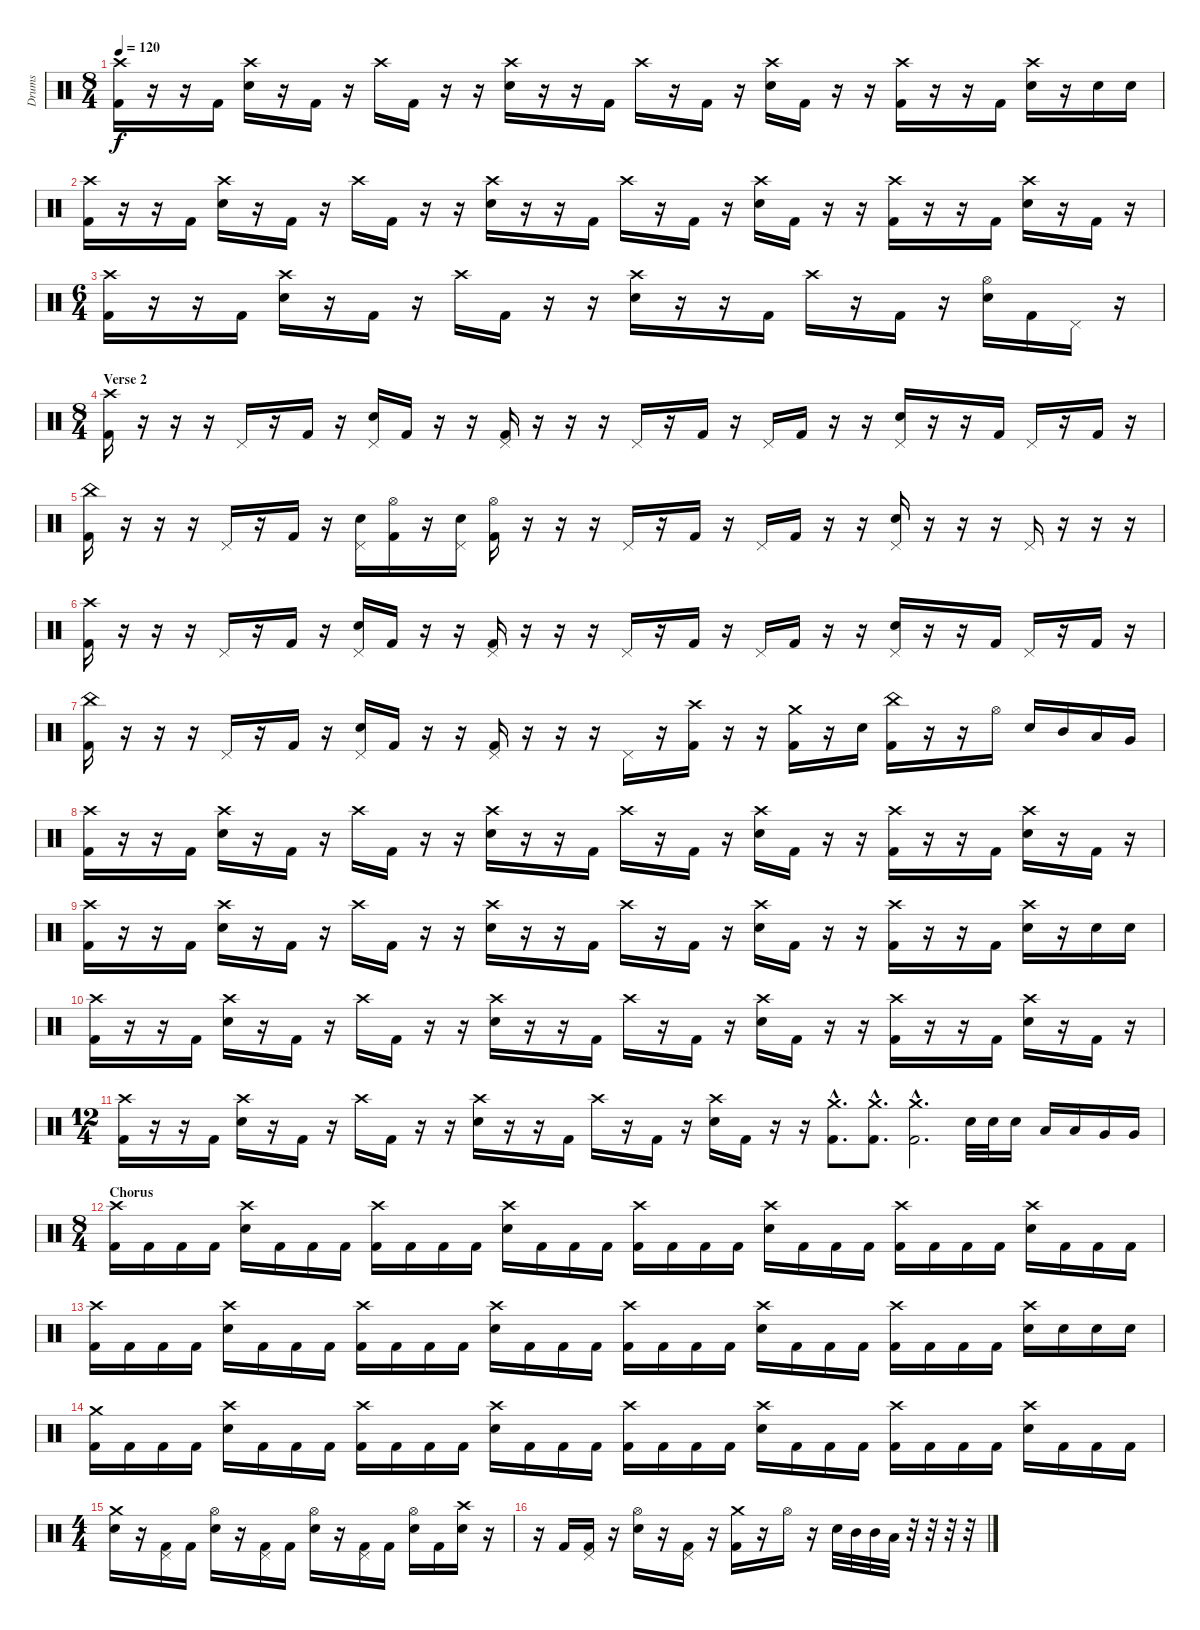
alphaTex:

\track ("Drums" "Drums") {instrument percussion}
\staff {score}
\articulation defaults
\ts (8 4)
\tempo 120
\clef neutral
\ks c
("Crash high (hit)" "Kick (hit) 2").16{dy f} r.16 r.16 "Kick (hit) 2".16 ("Crash high (hit)" "Electric Snare (hit)").16 r.16 "Kick (hit) 2".16 r.16 "Crash high (hit)".16 "Kick (hit) 2".16 r.16 r.16 ("Crash high (hit)" "Electric Snare (hit)").16 r.16 r.16 "Kick (hit) 2".16 "Crash high (hit)".16 r.16 "Kick (hit) 2".16 r.16 ("Crash high (hit)" "Electric Snare (hit)").16 "Kick (hit) 2".16 r.16 r.16 ("Crash high (hit)" "Kick (hit) 2").16 r.16 r.16 "Kick (hit) 2".16 ("Crash high (hit)" "Electric Snare (hit)").16 r.16 "Electric Snare (hit)".16 "Electric Snare (hit)".16 |
("Crash high (hit)" "Kick (hit) 2").16 r.16 r.16 "Kick (hit) 2".16 ("Crash high (hit)" "Electric Snare (hit)").16 r.16 "Kick (hit) 2".16 r.16 "Crash high (hit)".16 "Kick (hit) 2".16 r.16 r.16 ("Crash high (hit)" "Electric Snare (hit)").16 r.16 r.16 "Kick (hit) 2".16 "Crash high (hit)".16 r.16 "Kick (hit) 2".16 r.16 ("Crash high (hit)" "Electric Snare (hit)").16 "Kick (hit) 2".16 r.16 r.16 ("Crash high (hit)" "Kick (hit) 2").16 r.16 r.16 "Kick (hit) 2".16 ("Crash high (hit)" "Electric Snare (hit)").16 r.16 "Kick (hit) 2".16 r.16 |
\ts (6 4)
("Crash high (hit)" "Kick (hit) 2").16 r.16 r.16 "Kick (hit) 2".16 ("Crash high (hit)" "Electric Snare (hit)").16 r.16 "Kick (hit) 2".16 r.16 "Crash high (hit)".16 "Kick (hit) 2".16 r.16 r.16 ("Crash high (hit)" "Electric Snare (hit)").16 r.16 r.16 "Kick (hit) 2".16 "Crash high (hit)".16 r.16 "Kick (hit) 2".16 r.16 ("Hi-Hat (open)" "Electric Snare (hit)").16 "Kick (hit) 2".16 "Pedal Hi-Hat (hit)".16 r.16 |
\ts (8 4)
\section ("" "Verse 2")
("Crash high (hit)" "Kick (hit) 2").16 r.16 r.16 r.16 "Pedal Hi-Hat (hit)".16 r.16 "Kick (hit) 2".16 r.16 ("Pedal Hi-Hat (hit)" "Electric Snare (hit)").16 "Kick (hit) 2".16 r.16 r.16 ("Pedal Hi-Hat (hit)" "Kick (hit) 2").16 r.16 r.16 r.16 "Pedal Hi-Hat (hit)".16 r.16 "Kick (hit) 2".16 r.16 "Pedal Hi-Hat (hit)".16 "Kick (hit) 2".16 r.16 r.16 ("Pedal Hi-Hat (hit)" "Electric Snare (hit)").16 r.16 r.16 "Kick (hit) 2".16 "Pedal Hi-Hat (hit)".16 r.16 "Kick (hit) 2".16 r.16 |
("China (hit)" "Kick (hit) 2").16 r.16 r.16 r.16 "Pedal Hi-Hat (hit)".16 r.16 "Kick (hit) 2".16 r.16 ("Pedal Hi-Hat (hit)" "Electric Snare (hit)").16 ("Hi-Hat (open)" "Kick (hit) 2").16 r.16 ("Pedal Hi-Hat (hit)" "Electric Snare (hit)").16 ("Hi-Hat (open)" "Kick (hit) 2").16 r.16 r.16 r.16 "Pedal Hi-Hat (hit)".16 r.16 "Kick (hit) 2".16 r.16 "Pedal Hi-Hat (hit)".16 "Kick (hit) 2".16 r.16 r.16 ("Pedal Hi-Hat (hit)" "Electric Snare (hit)").16 r.16 r.16 r.16 "Pedal Hi-Hat (hit)".16 r.16 r.16 r.16 |
("Crash high (hit)" "Kick (hit) 2").16 r.16 r.16 r.16 "Pedal Hi-Hat (hit)".16 r.16 "Kick (hit) 2".16 r.16 ("Pedal Hi-Hat (hit)" "Electric Snare (hit)").16 "Kick (hit) 2".16 r.16 r.16 ("Pedal Hi-Hat (hit)" "Kick (hit) 2").16 r.16 r.16 r.16 "Pedal Hi-Hat (hit)".16 r.16 "Kick (hit) 2".16 r.16 "Pedal Hi-Hat (hit)".16 "Kick (hit) 2".16 r.16 r.16 ("Pedal Hi-Hat (hit)" "Electric Snare (hit)").16 r.16 r.16 "Kick (hit) 2".16 "Pedal Hi-Hat (hit)".16 r.16 "Kick (hit) 2".16 r.16 |
("China (hit)" "Kick (hit) 2").16 r.16 r.16 r.16 "Pedal Hi-Hat (hit)".16 r.16 "Kick (hit) 2".16 r.16 ("Pedal Hi-Hat (hit)" "Electric Snare (hit)").16 "Kick (hit) 2".16 r.16 r.16 ("Pedal Hi-Hat (hit)" "Kick (hit) 2").16 r.16 r.16 r.16 "Pedal Hi-Hat (hit)".16 r.16 ("Crash high (hit)" "Kick (hit) 2").16 r.16 r.16 ("Crash medium (hit)" "Kick (hit) 2").16 r.16 "Electric Snare (hit)".16 ("China (hit)" "Kick (hit) 2").16 r.16 r.16 "Hi-Hat (open)".16 "Electric Snare (hit)".16 "Mid Tom (hit)".16 "Low Tom (hit)".16 "Very Low Tom (hit)".16 |
("Crash high (hit)" "Kick (hit) 2").16 r.16 r.16 "Kick (hit) 2".16 ("Crash high (hit)" "Electric Snare (hit)").16 r.16 "Kick (hit) 2".16 r.16 "Crash high (hit)".16 "Kick (hit) 2".16 r.16 r.16 ("Crash high (hit)" "Electric Snare (hit)").16 r.16 r.16 "Kick (hit) 2".16 "Crash high (hit)".16 r.16 "Kick (hit) 2".16 r.16 ("Crash high (hit)" "Electric Snare (hit)").16 "Kick (hit) 2".16 r.16 r.16 ("Crash high (hit)" "Kick (hit) 2").16 r.16 r.16 "Kick (hit) 2".16 ("Crash high (hit)" "Electric Snare (hit)").16 r.16 "Kick (hit) 2".16 r.16 |
("Crash high (hit)" "Kick (hit) 2").16 r.16 r.16 "Kick (hit) 2".16 ("Crash high (hit)" "Electric Snare (hit)").16 r.16 "Kick (hit) 2".16 r.16 "Crash high (hit)".16 "Kick (hit) 2".16 r.16 r.16 ("Crash high (hit)" "Electric Snare (hit)").16 r.16 r.16 "Kick (hit) 2".16 "Crash high (hit)".16 r.16 "Kick (hit) 2".16 r.16 ("Crash high (hit)" "Electric Snare (hit)").16 "Kick (hit) 2".16 r.16 r.16 ("Crash high (hit)" "Kick (hit) 2").16 r.16 r.16 "Kick (hit) 2".16 ("Crash high (hit)" "Electric Snare (hit)").16 r.16 "Electric Snare (hit)".16 "Electric Snare (hit)".16 |
("Crash high (hit)" "Kick (hit) 2").16 r.16 r.16 "Kick (hit) 2".16 ("Crash high (hit)" "Electric Snare (hit)").16 r.16 "Kick (hit) 2".16 r.16 "Crash high (hit)".16 "Kick (hit) 2".16 r.16 r.16 ("Crash high (hit)" "Electric Snare (hit)").16 r.16 r.16 "Kick (hit) 2".16 "Crash high (hit)".16 r.16 "Kick (hit) 2".16 r.16 ("Crash high (hit)" "Electric Snare (hit)").16 "Kick (hit) 2".16 r.16 r.16 ("Crash high (hit)" "Kick (hit) 2").16 r.16 r.16 "Kick (hit) 2".16 ("Crash high (hit)" "Electric Snare (hit)").16 r.16 "Kick (hit) 2".16 r.16 |
\ts (12 4)
("Crash high (hit)" "Kick (hit) 2").16 r.16 r.16 "Kick (hit) 2".16 ("Crash high (hit)" "Electric Snare (hit)").16 r.16 "Kick (hit) 2".16 r.16 "Crash high (hit)".16 "Kick (hit) 2".16 r.16 r.16 ("Crash high (hit)" "Electric Snare (hit)").16 r.16 r.16 "Kick (hit) 2".16 "Crash high (hit)".16 r.16 "Kick (hit) 2".16 r.16 ("Crash high (hit)" "Electric Snare (hit)").16 "Kick (hit) 2".16 r.16 r.16 ("Crash medium (hit)"{hac} "Kick (hit) 2"{hac}).8{d} ("Crash medium (hit)"{hac} "Kick (hit) 2"{hac}).8{d} ("Crash medium (hit)"{hac} "Kick (hit) 2"{hac}).2{d} "Electric Snare (hit)".32 "Electric Snare (hit)".32 "Electric Snare (hit)".16 "Low Tom (hit)".16 "Low Tom (hit)".16 "Very Low Tom (hit)".16 "Very Low Tom (hit)".16 |
\ts (8 4)
\section ("" "Chorus")
("Crash high (hit)" "Kick (hit) 2").16 "Kick (hit) 2".16 "Kick (hit) 2".16 "Kick (hit) 2".16 ("Crash high (hit)" "Electric Snare (hit)").16 "Kick (hit) 2".16 "Kick (hit) 2".16 "Kick (hit) 2".16 ("Crash high (hit)" "Kick (hit) 2").16 "Kick (hit) 2".16 "Kick (hit) 2".16 "Kick (hit) 2".16 ("Crash high (hit)" "Electric Snare (hit)").16 "Kick (hit) 2".16 "Kick (hit) 2".16 "Kick (hit) 2".16 ("Crash high (hit)" "Kick (hit) 2").16 "Kick (hit) 2".16 "Kick (hit) 2".16 "Kick (hit) 2".16 ("Crash high (hit)" "Electric Snare (hit)").16 "Kick (hit) 2".16 "Kick (hit) 2".16 "Kick (hit) 2".16 ("Crash high (hit)" "Kick (hit) 2").16 "Kick (hit) 2".16 "Kick (hit) 2".16 "Kick (hit) 2".16 ("Crash high (hit)" "Electric Snare (hit)").16 "Kick (hit) 2".16 "Kick (hit) 2".16 "Kick (hit) 2".16 |
("Crash high (hit)" "Kick (hit) 2").16 "Kick (hit) 2".16 "Kick (hit) 2".16 "Kick (hit) 2".16 ("Crash high (hit)" "Electric Snare (hit)").16 "Kick (hit) 2".16 "Kick (hit) 2".16 "Kick (hit) 2".16 ("Crash high (hit)" "Kick (hit) 2").16 "Kick (hit) 2".16 "Kick (hit) 2".16 "Kick (hit) 2".16 ("Crash high (hit)" "Electric Snare (hit)").16 "Kick (hit) 2".16 "Kick (hit) 2".16 "Kick (hit) 2".16 ("Crash high (hit)" "Kick (hit) 2").16 "Kick (hit) 2".16 "Kick (hit) 2".16 "Kick (hit) 2".16 ("Crash high (hit)" "Electric Snare (hit)").16 "Kick (hit) 2".16 "Kick (hit) 2".16 "Kick (hit) 2".16 ("Crash high (hit)" "Kick (hit) 2").16 "Kick (hit) 2".16 "Kick (hit) 2".16 "Kick (hit) 2".16 ("Crash high (hit)" "Electric Snare (hit)").16 "Electric Snare (hit)".16 "Electric Snare (hit)".16 "Electric Snare (hit)".16 |
("Crash medium (hit)" "Kick (hit) 2").16 "Kick (hit) 2".16 "Kick (hit) 2".16 "Kick (hit) 2".16 ("Crash high (hit)" "Electric Snare (hit)").16 "Kick (hit) 2".16 "Kick (hit) 2".16 "Kick (hit) 2".16 ("Crash high (hit)" "Kick (hit) 2").16 "Kick (hit) 2".16 "Kick (hit) 2".16 "Kick (hit) 2".16 ("Crash high (hit)" "Electric Snare (hit)").16 "Kick (hit) 2".16 "Kick (hit) 2".16 "Kick (hit) 2".16 ("Crash high (hit)" "Kick (hit) 2").16 "Kick (hit) 2".16 "Kick (hit) 2".16 "Kick (hit) 2".16 ("Crash high (hit)" "Electric Snare (hit)").16 "Kick (hit) 2".16 "Kick (hit) 2".16 "Kick (hit) 2".16 ("Crash high (hit)" "Kick (hit) 2").16 "Kick (hit) 2".16 "Kick (hit) 2".16 "Kick (hit) 2".16 ("Crash high (hit)" "Electric Snare (hit)").16 "Kick (hit) 2".16 "Kick (hit) 2".16 "Kick (hit) 2".16 |
\ts (4 4)
("Crash medium (hit)" "Electric Snare (hit)").16 r.16 ("Pedal Hi-Hat (hit)" "Kick (hit) 2").16 "Kick (hit) 2".16 ("Hi-Hat (open)" "Electric Snare (hit)").16 r.16 ("Pedal Hi-Hat (hit)" "Kick (hit) 2").16 "Kick (hit) 2".16 ("Hi-Hat (open)" "Electric Snare (hit)").16 r.16 ("Pedal Hi-Hat (hit)" "Kick (hit) 2").16 "Kick (hit) 2".16 ("Hi-Hat (open)" "Electric Snare (hit)").16 "Kick (hit) 2".16 ("Crash high (hit)" "Electric Snare (hit)").16 r.16 |
r.16 "Kick (hit) 2".16 ("Pedal Hi-Hat (hit)" "Kick (hit) 2").16 r.16 ("Hi-Hat (open)" "Electric Snare (hit)").16 r.16 ("Pedal Hi-Hat (hit)" "Kick (hit) 2").16 r.16 ("Crash medium (hit)" "Kick (hit) 2").16 r.16 "Hi-Hat (open)".16 r.16 "Electric Snare (hit)".32 "Mid Tom (hit)".32 "Mid Tom (hit)".32 "Low Tom (hit)".32 r.32 r.32 r.32 r.32
